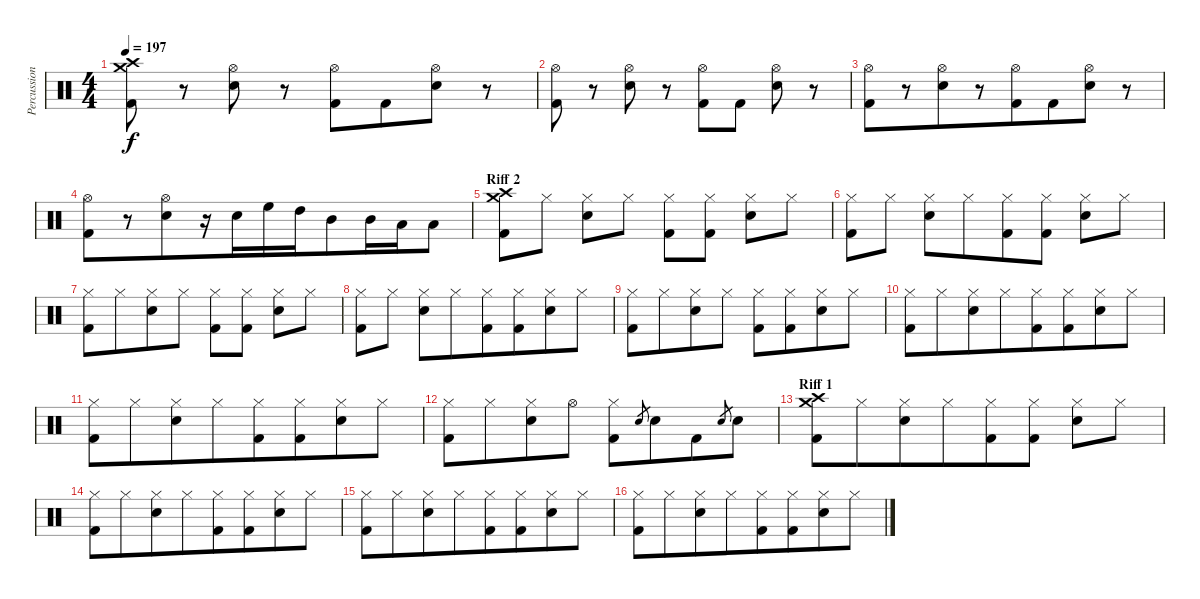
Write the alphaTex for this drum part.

\track ("Percussion" "Percussion") {instrument percussion}
\staff {score}
\articulation defaults
\ts (4 4)
\tempo 197
\clef neutral
\ks c
("Crash medium (hit)" "Crash high (hit)" "Kick (hit) 2").8{dy f} r.8{beam merge} ("Hi-Hat (open)" "Electric Snare (hit)").8 r.8 ("Hi-Hat (open)" "Kick (hit) 2").8{beam merge} "Kick (hit) 2".8{beam merge} ("Hi-Hat (open)" "Electric Snare (hit)").8{beam merge} r.8 |
("Hi-Hat (open)" "Kick (hit) 2").8 r.8 ("Hi-Hat (open)" "Electric Snare (hit)").8 r.8{beam merge} ("Hi-Hat (open)" "Kick (hit) 2").8 "Kick (hit) 2".8 ("Hi-Hat (open)" "Electric Snare (hit)").8 r.8 |
("Hi-Hat (open)" "Kick (hit) 2").8{beam merge} r.8 ("Hi-Hat (open)" "Electric Snare (hit)").8{beam merge} r.8{beam merge} ("Hi-Hat (open)" "Kick (hit) 2").8{beam merge} "Kick (hit) 2".8{beam merge} ("Hi-Hat (open)" "Electric Snare (hit)").8{beam merge} r.8 |
("Hi-Hat (open)" "Kick (hit) 2").8{beam merge} r.8{beam merge} ("Hi-Hat (open)" "Electric Snare (hit)").8{beam merge} r.16{beam merge} "Electric Snare (hit)".16{beam merge} "High Floor Tom (hit)".16{beam merge} "High Tom (hit)".16 "Mid Tom (hit)".8{beam merge} "Mid Tom (hit)".16{beam merge} "Low Tom (hit)".16 "Low Floor Tom (hit)".8 |
\section ("" "Riff 2")
("Crash medium (hit)" "Crash high (hit)" "Kick (hit) 2").8 "Hi-Hat (closed)".8 ("Hi-Hat (closed)" "Electric Snare (hit)").8 "Hi-Hat (closed)".8 ("Hi-Hat (closed)" "Kick (hit) 2").8 ("Hi-Hat (closed)" "Kick (hit) 2").8 ("Hi-Hat (closed)" "Electric Snare (hit)").8 "Hi-Hat (closed)".8 |
("Hi-Hat (closed)" "Kick (hit) 2").8 "Hi-Hat (closed)".8 ("Hi-Hat (closed)" "Electric Snare (hit)").8{beam merge} "Hi-Hat (closed)".8{beam merge} ("Hi-Hat (closed)" "Kick (hit) 2").8 ("Hi-Hat (closed)" "Kick (hit) 2").8 ("Hi-Hat (closed)" "Electric Snare (hit)").8 "Hi-Hat (closed)".8 |
("Hi-Hat (closed)" "Kick (hit) 2").8{beam merge} "Hi-Hat (closed)".8{beam merge} ("Hi-Hat (closed)" "Electric Snare (hit)").8 "Hi-Hat (closed)".8 ("Hi-Hat (closed)" "Kick (hit) 2").8 ("Hi-Hat (closed)" "Kick (hit) 2").8 ("Hi-Hat (closed)" "Electric Snare (hit)").8 "Hi-Hat (closed)".8 |
("Hi-Hat (closed)" "Kick (hit) 2").8 "Hi-Hat (closed)".8 ("Hi-Hat (closed)" "Electric Snare (hit)").8 "Hi-Hat (closed)".8{beam merge} ("Hi-Hat (closed)" "Kick (hit) 2").8{beam merge} ("Hi-Hat (closed)" "Kick (hit) 2").8{beam merge} ("Hi-Hat (closed)" "Electric Snare (hit)").8{beam merge} "Hi-Hat (closed)".8 |
("Hi-Hat (closed)" "Kick (hit) 2").8{beam merge} "Hi-Hat (closed)".8{beam merge} ("Hi-Hat (closed)" "Electric Snare (hit)").8{beam merge} "Hi-Hat (closed)".8 ("Hi-Hat (closed)" "Kick (hit) 2").8{beam merge} ("Hi-Hat (closed)" "Kick (hit) 2").8{beam merge} ("Hi-Hat (closed)" "Electric Snare (hit)").8{beam merge} "Hi-Hat (closed)".8 |
("Hi-Hat (closed)" "Kick (hit) 2").8 "Hi-Hat (closed)".8{beam merge} ("Hi-Hat (closed)" "Electric Snare (hit)").8{beam merge} "Hi-Hat (closed)".8{beam merge} ("Hi-Hat (closed)" "Kick (hit) 2").8 ("Hi-Hat (closed)" "Kick (hit) 2").8{beam merge} ("Hi-Hat (closed)" "Electric Snare (hit)").8{beam merge} "Hi-Hat (closed)".8 |
("Hi-Hat (closed)" "Kick (hit) 2").8{beam merge} "Hi-Hat (closed)".8{beam merge} ("Hi-Hat (closed)" "Electric Snare (hit)").8{beam merge} "Hi-Hat (closed)".8{beam merge} ("Hi-Hat (closed)" "Kick (hit) 2").8 ("Hi-Hat (closed)" "Kick (hit) 2").8{beam merge} ("Hi-Hat (closed)" "Electric Snare (hit)").8{beam merge} "Hi-Hat (closed)".8 |
("Hi-Hat (closed)" "Kick (hit) 2").8{beam merge} "Hi-Hat (closed)".8{beam merge} ("Hi-Hat (closed)" "Electric Snare (hit)").8 "Hi-Hat (open)".8 ("Hi-Hat (closed)" "Kick (hit) 2").8 "Electric Snare (hit)".8{gr} "Electric Snare (hit)".8{beam merge} "Kick (hit) 2".8 "Electric Snare (hit)".8{gr beam merge} "Electric Snare (hit)".8 |
\section ("" "Riff 1")
("Crash medium (hit)" "Crash high (hit)" "Kick (hit) 2").8{beam merge} "Hi-Hat (closed)".8{beam merge} ("Hi-Hat (closed)" "Electric Snare (hit)").8{beam merge} "Hi-Hat (closed)".8{beam merge} ("Hi-Hat (closed)" "Kick (hit) 2").8{beam merge} ("Hi-Hat (closed)" "Kick (hit) 2").8 ("Hi-Hat (closed)" "Electric Snare (hit)").8{beam merge} "Hi-Hat (closed)".8 |
("Hi-Hat (closed)" "Kick (hit) 2").8{beam merge} "Hi-Hat (closed)".8{beam merge} ("Hi-Hat (closed)" "Electric Snare (hit)").8{beam merge} "Hi-Hat (closed)".8{beam merge} ("Hi-Hat (closed)" "Kick (hit) 2").8{beam merge} ("Hi-Hat (closed)" "Kick (hit) 2").8{beam merge} ("Hi-Hat (closed)" "Electric Snare (hit)").8 "Hi-Hat (closed)".8 |
("Hi-Hat (closed)" "Kick (hit) 2").8{beam merge} "Hi-Hat (closed)".8{beam merge} ("Hi-Hat (closed)" "Electric Snare (hit)").8{beam merge} "Hi-Hat (closed)".8{beam merge} ("Hi-Hat (closed)" "Kick (hit) 2").8{beam merge} ("Hi-Hat (closed)" "Kick (hit) 2").8{beam merge} ("Hi-Hat (closed)" "Electric Snare (hit)").8{beam merge} "Hi-Hat (closed)".8 |
("Hi-Hat (closed)" "Kick (hit) 2").8{beam merge} "Hi-Hat (closed)".8{beam merge} ("Hi-Hat (closed)" "Electric Snare (hit)").8{beam merge} "Hi-Hat (closed)".8{beam merge} ("Hi-Hat (closed)" "Kick (hit) 2").8{beam merge} ("Hi-Hat (closed)" "Kick (hit) 2").8{beam merge} ("Hi-Hat (closed)" "Electric Snare (hit)").8{beam merge} "Hi-Hat (closed)".8
